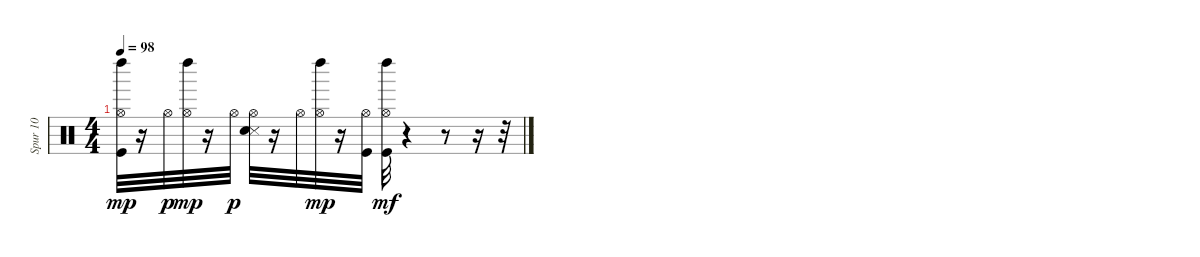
\track ("Spur 10" "Spur 10") {instrument percussion}
\staff {score}
\articulation defaults
\ts (4 4)
\tempo 98
\clef neutral
\ks c
("Hi-Hat (open)" "Kick (hit)" "Left Maraca (hit)").32{dy mp} r.16 "Hi-Hat (open)".32{dy p} ("Hi-Hat (open)" "Left Maraca (hit)").32{dy mp} r.16 "Hi-Hat (open)".32{dy p} ("Hi-Hat (open)" "Snare (side stick) 3" "Electric Snare (hit)").32 r.16 "Hi-Hat (open)".32 ("Hi-Hat (open)" "Left Maraca (hit)").32{dy mp} r.16 ("Hi-Hat (open)" "Kick (hit)").32 ("Hi-Hat (open)" "Kick (hit)" "Left Maraca (hit)").32{dy mf} r.4 r.8 r.16 r.32
